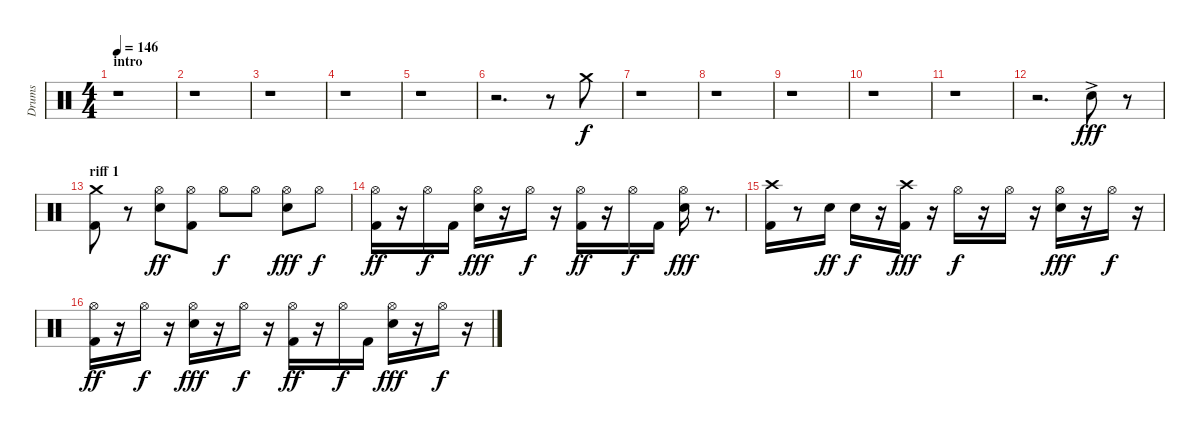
\track ("Drums" "Drums") {instrument percussion}
\staff {score}
\articulation defaults
\ts (4 4)
\section ("" "intro")
\tempo 146
\clef neutral
\ks c
r.1{dy f} |
r.1 |
r.1 |
r.1 |
r.1 |
r.2{d} r.8 "Crash medium (hit)".8 |
r.1 |
r.1 |
r.1 |
r.1 |
r.1 |
r.2{d} "Snare (hit) 2"{ac}.8{dy fff} r.8 |
\section ("" "riff 1")
("Kick (hit) 2" "Crash medium (hit)").8{volume 14} r.8 ("Hi-Hat (open)" "Snare (hit) 2").8{dy ff} ("Hi-Hat (open)" "Kick (hit) 2").8 "Hi-Hat (open)".8{dy f} "Hi-Hat (open)".8 ("Snare (hit) 2" "Hi-Hat (open)").8{dy fff} "Hi-Hat (open)".8{dy f} |
("Kick (hit) 2" "Hi-Hat (open)").16{dy ff} r.16 "Hi-Hat (open)".16{dy f} "Kick (hit) 2".16 ("Snare (hit) 2" "Hi-Hat (open)").16{dy fff} r.16 "Hi-Hat (open)".16{dy f} r.16 ("Kick (hit) 2" "Hi-Hat (open)").16{dy ff} r.16 "Hi-Hat (open)".16{dy f} "Kick (hit) 2".16 ("Snare (hit) 2" "Hi-Hat (open)").16{dy fff} r.8{d} |
("Kick (hit) 2" "Crash high (hit)").16 r.8 "Snare (hit) 2".16{dy ff} "Snare (hit) 2".16{dy f} r.16 ("Kick (hit) 2" "Crash high (hit)").16{dy fff} r.16 "Hi-Hat (open)".16{dy f} r.16 "Hi-Hat (open)".16 r.16 ("Snare (hit) 2" "Hi-Hat (open)").16{dy fff} r.16 "Hi-Hat (open)".16{dy f} r.16 |
("Kick (hit) 2" "Hi-Hat (open)").16{dy ff} r.16 "Hi-Hat (open)".16{dy f} r.16 ("Snare (hit) 2" "Hi-Hat (open)").16{dy fff} r.16 "Hi-Hat (open)".16{dy f} r.16 ("Kick (hit) 2" "Hi-Hat (open)").16{dy ff} r.16 "Hi-Hat (open)".16{dy f} "Kick (hit) 2".16 ("Snare (hit) 2" "Hi-Hat (open)").16{dy fff} r.16 "Hi-Hat (open)".16{dy f} r.16
